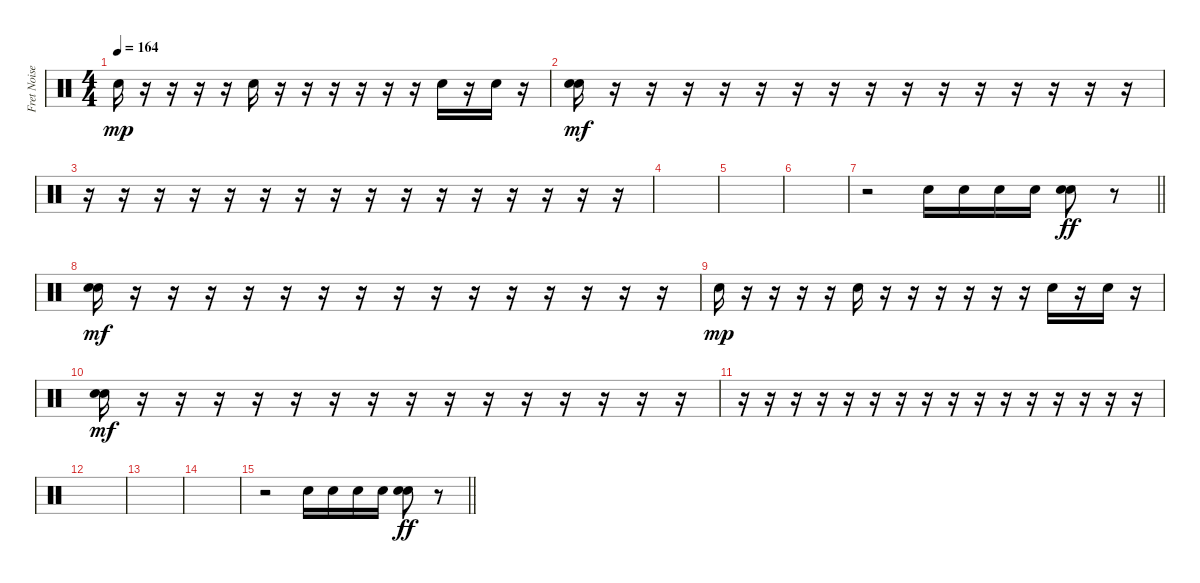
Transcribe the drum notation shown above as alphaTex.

\track ("Fret Noise / Percussion(corpus)" "Fret Noise") {instrument percussion}
\staff {score}
\articulation defaults
\ts (4 4)
\tempo 164
\clef neutral
\ks c "Snare (hit) 2".16{dy mp}
r.16 r.16 r.16 r.16 "Snare (hit) 2".16 r.16 r.16 r.16 r.16 r.16 r.16 "Snare (hit) 2".16 r.16 "Snare (hit) 2".16 r.16 |
("Snare (hit) 2" "Snare (hit) 2").16{dy mf} r.16 r.16 r.16 r.16 r.16 r.16 r.16 r.16 r.16 r.16 r.16 r.16 r.16 r.16 r.16 |
r.16 r.16 r.16 r.16 r.16 r.16 r.16 r.16 r.16 r.16 r.16 r.16 r.16 r.16 r.16 r.16 |
|
|
|
\barLineRight lightlight
r.2 "Snare (hit) 2".16 "Snare (hit) 2".16 "Snare (hit) 2".16 "Snare (hit) 2".16 ("Snare (hit) 2" "Snare (hit) 2").8{dy ff} r.8 |
("Snare (hit) 2" "Snare (hit) 2").16{dy mf} r.16 r.16 r.16 r.16 r.16 r.16 r.16 r.16 r.16 r.16 r.16 r.16 r.16 r.16 r.16 |
"Snare (hit) 2".16{dy mp} r.16 r.16 r.16 r.16 "Snare (hit) 2".16 r.16 r.16 r.16 r.16 r.16 r.16 "Snare (hit) 2".16 r.16 "Snare (hit) 2".16 r.16 |
("Snare (hit) 2" "Snare (hit) 2").16{dy mf} r.16 r.16 r.16 r.16 r.16 r.16 r.16 r.16 r.16 r.16 r.16 r.16 r.16 r.16 r.16 |
r.16 r.16 r.16 r.16 r.16 r.16 r.16 r.16 r.16 r.16 r.16 r.16 r.16 r.16 r.16 r.16 |
|
|
|
\barLineRight lightlight
r.2 "Snare (hit) 2".16 "Snare (hit) 2".16 "Snare (hit) 2".16 "Snare (hit) 2".16 ("Snare (hit) 2" "Snare (hit) 2").8{dy ff} r.8
